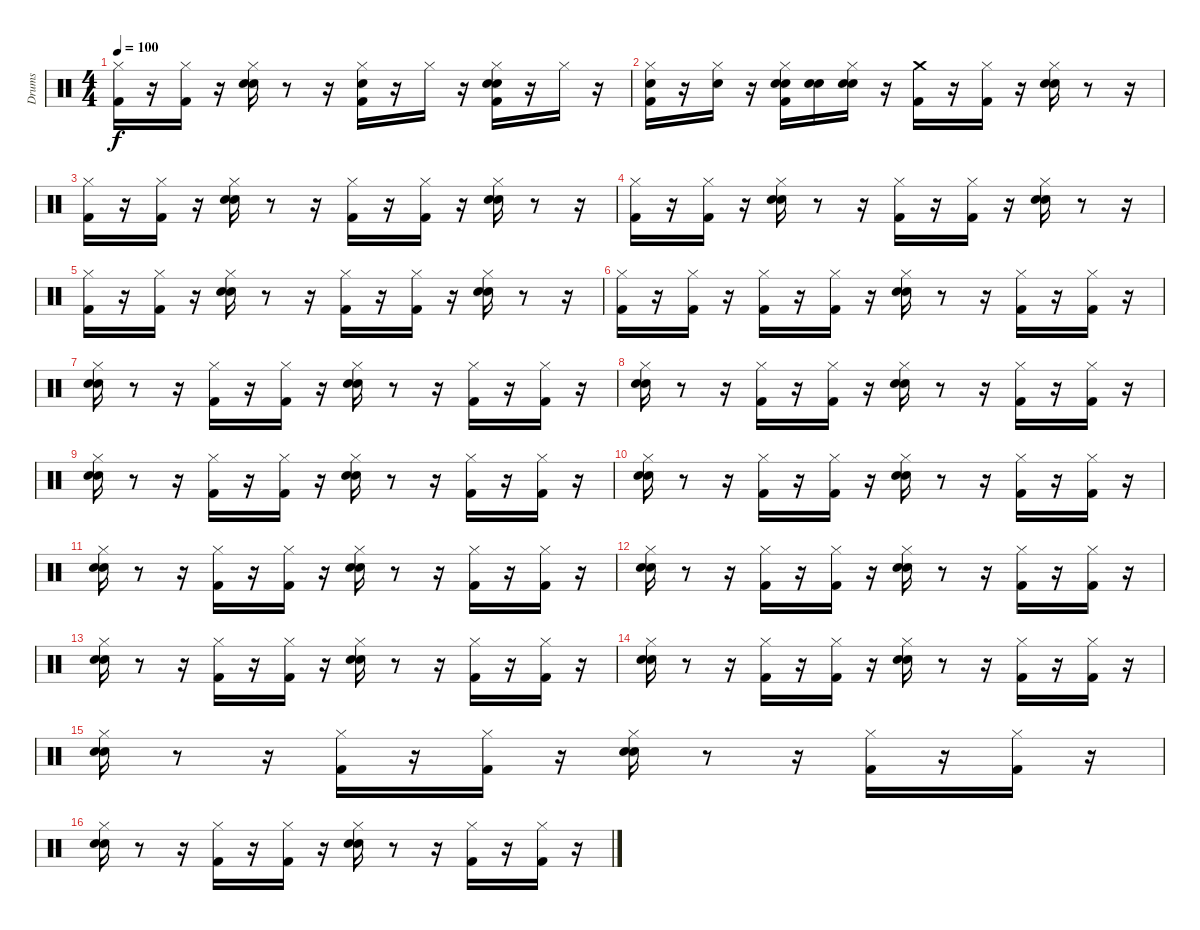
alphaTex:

\track ("Drums" "Drums") {instrument percussion}
\staff {score}
\articulation defaults
\ts (4 4)
\tempo 100
\clef neutral
\ks c
("Hi-Hat (closed)" "Kick (hit) 2").16{dy f} r.16 ("Hi-Hat (closed)" "Kick (hit) 2").16 r.16 ("Snare (hit) 2" "Hand Clap (hit)" "Hi-Hat (closed)").16 r.8 r.16 ("Kick (hit) 2" "Snare (hit) 2" "Hi-Hat (closed)").16 r.16 "Hi-Hat (closed)".16 r.16 ("Hi-Hat (closed)" "Hand Clap (hit)" "Snare (hit) 2" "Kick (hit) 2").16 r.16 "Hi-Hat (closed)".16 r.16 |
("Kick (hit) 2" "Hi-Hat (closed)" "Snare (hit) 2").16 r.16 ("Hi-Hat (closed)" "Snare (hit) 2").16 r.16 ("Kick (hit) 2" "Hi-Hat (closed)" "Snare (hit) 2" "Hand Clap (hit)").16 ("Snare (hit)" "Snare (hit) 2").16 ("Snare (hit)" "Snare (hit) 2" "Hi-Hat (closed)").16 r.16 ("Kick (hit) 2" "Crash medium (hit)").16 r.16 ("Hi-Hat (closed)" "Kick (hit) 2").16 r.16 ("Hi-Hat (closed)" "Snare (hit) 2" "Hand Clap (hit)").16 r.8 r.16 |
("Kick (hit) 2" "Hi-Hat (closed)").16 r.16 ("Hi-Hat (closed)" "Kick (hit) 2").16 r.16 ("Hand Clap (hit)" "Snare (hit) 2" "Hi-Hat (closed)").16 r.8 r.16 ("Kick (hit) 2" "Hi-Hat (closed)").16 r.16 ("Hi-Hat (closed)" "Kick (hit) 2").16 r.16 ("Hand Clap (hit)" "Snare (hit) 2" "Hi-Hat (closed)").16 r.8 r.16 |
("Hi-Hat (closed)" "Kick (hit) 2").16 r.16 ("Kick (hit) 2" "Hi-Hat (closed)").16 r.16 ("Snare (hit) 2" "Hi-Hat (closed)" "Hand Clap (hit)").16 r.8 r.16 ("Kick (hit) 2" "Hi-Hat (closed)").16 r.16 ("Kick (hit) 2" "Hi-Hat (closed)").16 r.16 ("Hi-Hat (closed)" "Hand Clap (hit)" "Snare (hit) 2").16 r.8 r.16 |
("Kick (hit) 2" "Hi-Hat (closed)").16 r.16 ("Kick (hit) 2" "Hi-Hat (closed)").16 r.16 ("Hand Clap (hit)" "Snare (hit) 2" "Hi-Hat (closed)").16 r.8 r.16 ("Kick (hit) 2" "Hi-Hat (closed)").16 r.16 ("Hi-Hat (closed)" "Kick (hit) 2").16 r.16 ("Hi-Hat (closed)" "Snare (hit) 2" "Hand Clap (hit)").16 r.8 r.16 |
("Kick (hit) 2" "Hi-Hat (closed)").16 r.16 ("Hi-Hat (closed)" "Kick (hit) 2").16 r.16 ("Kick (hit) 2" "Hi-Hat (closed)").16 r.16 ("Hi-Hat (closed)" "Kick (hit) 2").16 r.16 ("Hand Clap (hit)" "Snare (hit) 2" "Hi-Hat (closed)").16 r.8 r.16 ("Kick (hit) 2" "Hi-Hat (closed)").16 r.16 ("Kick (hit) 2" "Hi-Hat (closed)").16 r.16 |
("Snare (hit) 2" "Hi-Hat (closed)" "Hand Clap (hit)").16 r.8 r.16 ("Hi-Hat (closed)" "Kick (hit) 2").16 r.16 ("Hi-Hat (closed)" "Kick (hit) 2").16 r.16 ("Hand Clap (hit)" "Hi-Hat (closed)" "Snare (hit) 2").16 r.8 r.16 ("Hi-Hat (closed)" "Kick (hit) 2").16 r.16 ("Kick (hit) 2" "Hi-Hat (closed)").16 r.16 |
("Snare (hit) 2" "Hand Clap (hit)" "Hi-Hat (closed)").16 r.8 r.16 ("Hi-Hat (closed)" "Kick (hit) 2").16 r.16 ("Hi-Hat (closed)" "Kick (hit) 2").16 r.16 ("Hi-Hat (closed)" "Hand Clap (hit)" "Snare (hit) 2").16 r.8 r.16 ("Hi-Hat (closed)" "Kick (hit) 2").16 r.16 ("Hi-Hat (closed)" "Kick (hit) 2").16 r.16 |
("Hand Clap (hit)" "Hi-Hat (closed)" "Snare (hit) 2").16 r.8 r.16 ("Kick (hit) 2" "Hi-Hat (closed)").16 r.16 ("Hi-Hat (closed)" "Kick (hit) 2").16 r.16 ("Hi-Hat (closed)" "Snare (hit) 2" "Hand Clap (hit)").16 r.8 r.16 ("Hi-Hat (closed)" "Kick (hit) 2").16 r.16 ("Kick (hit) 2" "Hi-Hat (closed)").16 r.16 |
("Hand Clap (hit)" "Hi-Hat (closed)" "Snare (hit) 2").16 r.8 r.16 ("Kick (hit) 2" "Hi-Hat (closed)").16 r.16 ("Kick (hit) 2" "Hi-Hat (closed)").16 r.16 ("Snare (hit) 2" "Hand Clap (hit)" "Hi-Hat (closed)").16 r.8 r.16 ("Hi-Hat (closed)" "Kick (hit) 2").16 r.16 ("Hi-Hat (closed)" "Kick (hit) 2").16 r.16 |
("Snare (hit) 2" "Hi-Hat (closed)" "Hand Clap (hit)").16 r.8 r.16 ("Kick (hit) 2" "Hi-Hat (closed)").16 r.16 ("Hi-Hat (closed)" "Kick (hit) 2").16 r.16 ("Snare (hit) 2" "Hand Clap (hit)" "Hi-Hat (closed)").16 r.8 r.16 ("Hi-Hat (closed)" "Kick (hit) 2").16 r.16 ("Hi-Hat (closed)" "Kick (hit) 2").16 r.16 |
("Hand Clap (hit)" "Snare (hit) 2" "Hi-Hat (closed)").16 r.8 r.16 ("Kick (hit) 2" "Hi-Hat (closed)").16 r.16 ("Kick (hit) 2" "Hi-Hat (closed)").16 r.16 ("Snare (hit) 2" "Hi-Hat (closed)" "Hand Clap (hit)").16 r.8 r.16 ("Kick (hit) 2" "Hi-Hat (closed)").16 r.16 ("Hi-Hat (closed)" "Kick (hit) 2").16 r.16 |
("Snare (hit) 2" "Hi-Hat (closed)" "Hand Clap (hit)").16 r.8 r.16 ("Kick (hit) 2" "Hi-Hat (closed)").16 r.16 ("Kick (hit) 2" "Hi-Hat (closed)").16 r.16 ("Hi-Hat (closed)" "Snare (hit) 2" "Hand Clap (hit)").16 r.8 r.16 ("Hi-Hat (closed)" "Kick (hit) 2").16 r.16 ("Hi-Hat (closed)" "Kick (hit) 2").16 r.16 |
("Hi-Hat (closed)" "Hand Clap (hit)" "Snare (hit) 2").16 r.8 r.16 ("Hi-Hat (closed)" "Kick (hit) 2").16 r.16 ("Kick (hit) 2" "Hi-Hat (closed)").16 r.16 ("Hi-Hat (closed)" "Snare (hit) 2" "Hand Clap (hit)").16 r.8 r.16 ("Kick (hit) 2" "Hi-Hat (closed)").16 r.16 ("Hi-Hat (closed)" "Kick (hit) 2").16 r.16 |
("Snare (hit) 2" "Hand Clap (hit)" "Hi-Hat (closed)").16 r.8 r.16 ("Kick (hit) 2" "Hi-Hat (closed)").16 r.16 ("Kick (hit) 2" "Hi-Hat (closed)").16 r.16 ("Snare (hit) 2" "Hand Clap (hit)" "Hi-Hat (closed)").16 r.8 r.16 ("Hi-Hat (closed)" "Kick (hit) 2").16 r.16 ("Kick (hit) 2" "Hi-Hat (closed)").16 r.16 |
("Hi-Hat (closed)" "Snare (hit) 2" "Hand Clap (hit)").16 r.8 r.16 ("Kick (hit) 2" "Hi-Hat (closed)").16 r.16 ("Hi-Hat (closed)" "Kick (hit) 2").16 r.16 ("Hand Clap (hit)" "Hi-Hat (closed)" "Snare (hit) 2").16 r.8 r.16 ("Kick (hit) 2" "Hi-Hat (closed)").16 r.16 ("Hi-Hat (closed)" "Kick (hit) 2").16 r.16
